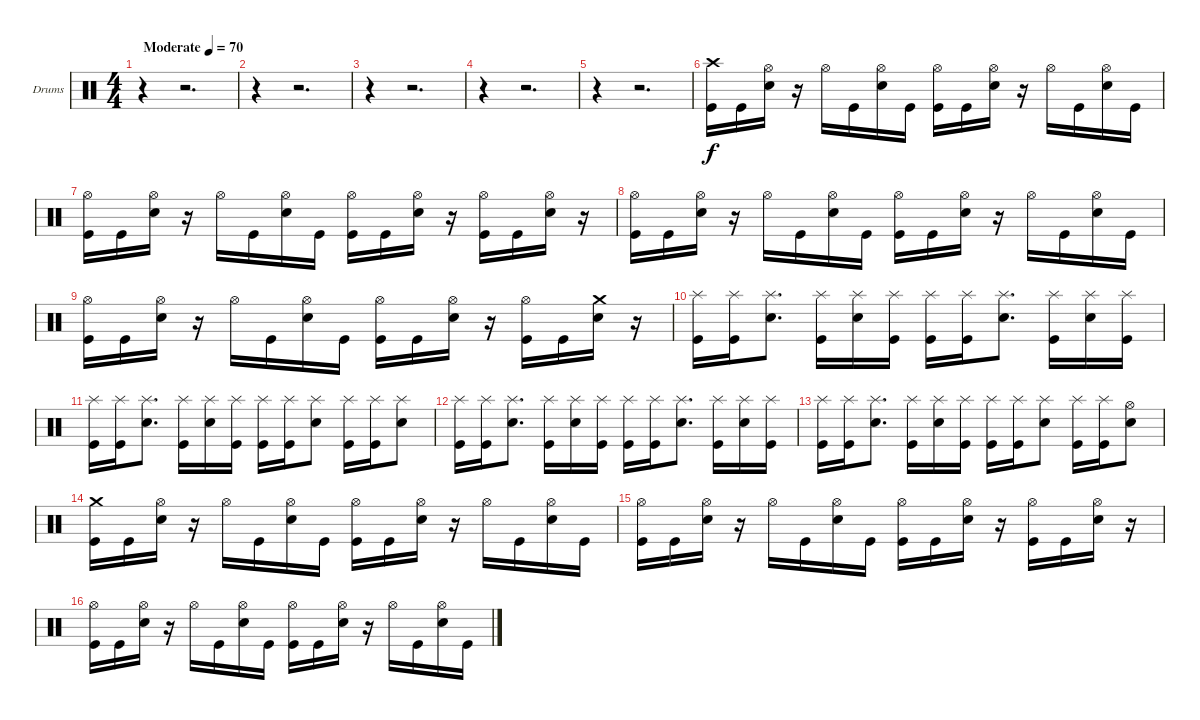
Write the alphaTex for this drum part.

\bracketExtendMode groupsimilarinstruments
\firstSystemTrackNameOrientation horizontal
\otherSystemsTrackNameOrientation horizontal
\track ("Drumkit" "Drums") {instrument percussion}
\staff {score}
\articulation defaults
\ts (4 4)
\beaming (8 2 2 2 2)
\tempo (70 "Moderate")
\clef neutral
\ks c
r.4{dy f} r.2{d} |
r.4 r.2{d} |
r.4 r.2{d} |
r.4 r.2{d} |
r.4 r.2{d} |
("Crash high (hit)" "Kick (hit)").16 "Kick (hit)".16 ("Hi-Hat (open)" "Snare (hit) 2").16 r.16 "Hi-Hat (open)".16 "Kick (hit)".16 ("Hi-Hat (open)" "Snare (hit) 2").16 "Kick (hit)".16 ("Hi-Hat (open)" "Kick (hit)").16 "Kick (hit)".16 ("Hi-Hat (open)" "Snare (hit) 2").16 r.16 "Hi-Hat (open)".16 "Kick (hit)".16 ("Hi-Hat (open)" "Snare (hit) 2").16 "Kick (hit)".16 |
("Hi-Hat (open)" "Kick (hit)").16 "Kick (hit)".16 ("Hi-Hat (open)" "Snare (hit) 2").16 r.16 "Hi-Hat (open)".16 "Kick (hit)".16 ("Hi-Hat (open)" "Snare (hit) 2").16 "Kick (hit)".16 ("Hi-Hat (open)" "Kick (hit)").16 "Kick (hit)".16 ("Hi-Hat (open)" "Snare (hit) 2").16 r.16 ("Hi-Hat (open)" "Kick (hit)").16 "Kick (hit)".16 ("Hi-Hat (open)" "Snare (hit) 2").16 r.16 |
("Hi-Hat (open)" "Kick (hit)").16 "Kick (hit)".16 ("Hi-Hat (open)" "Snare (hit) 2").16 r.16 "Hi-Hat (open)".16 "Kick (hit)".16 ("Hi-Hat (open)" "Snare (hit) 2").16 "Kick (hit)".16 ("Hi-Hat (open)" "Kick (hit)").16 "Kick (hit)".16 ("Hi-Hat (open)" "Snare (hit) 2").16 r.16 "Hi-Hat (open)".16 "Kick (hit)".16 ("Hi-Hat (open)" "Snare (hit) 2").16 "Kick (hit)".16 |
("Hi-Hat (open)" "Kick (hit)").16 "Kick (hit)".16 ("Hi-Hat (open)" "Snare (hit) 2").16 r.16 "Hi-Hat (open)".16 "Kick (hit)".16 ("Hi-Hat (open)" "Snare (hit) 2").16 "Kick (hit)".16 ("Hi-Hat (open)" "Kick (hit)").16 "Kick (hit)".16 ("Hi-Hat (open)" "Snare (hit) 2").16 r.16 ("Hi-Hat (open)" "Kick (hit)").16 "Kick (hit)".16 ("Crash medium (hit)" "Snare (hit) 2").16 r.16 |
("Splash (hit)" "Kick (hit)").16 ("Splash (hit)" "Kick (hit)").16 ("Splash (hit)" "Snare (hit) 2").8{d} ("Splash (hit)" "Kick (hit)").16 ("Splash (hit)" "Snare (hit) 2").16 ("Splash (hit)" "Kick (hit)").16 ("Splash (hit)" "Kick (hit)").16 ("Splash (hit)" "Kick (hit)").16 ("Splash (hit)" "Snare (hit) 2").8{d} ("Splash (hit)" "Kick (hit)").16 ("Splash (hit)" "Snare (hit) 2").16 ("Splash (hit)" "Kick (hit)").16 |
("Splash (hit)" "Kick (hit)").16 ("Splash (hit)" "Kick (hit)").16 ("Splash (hit)" "Snare (hit) 2").8{d} ("Splash (hit)" "Kick (hit)").16 ("Splash (hit)" "Snare (hit) 2").16 ("Splash (hit)" "Kick (hit)").16 ("Splash (hit)" "Kick (hit)").16 ("Splash (hit)" "Kick (hit)").16 ("Splash (hit)" "Snare (hit) 2").8 ("Splash (hit)" "Kick (hit)").16 ("Splash (hit)" "Kick (hit)").16 ("Splash (hit)" "Snare (hit) 2").8 |
("Splash (hit)" "Kick (hit)").16 ("Splash (hit)" "Kick (hit)").16 ("Splash (hit)" "Snare (hit) 2").8{d} ("Splash (hit)" "Kick (hit)").16 ("Splash (hit)" "Snare (hit) 2").16 ("Splash (hit)" "Kick (hit)").16 ("Splash (hit)" "Kick (hit)").16 ("Splash (hit)" "Kick (hit)").16 ("Splash (hit)" "Snare (hit) 2").8{d} ("Splash (hit)" "Kick (hit)").16 ("Splash (hit)" "Snare (hit) 2").16 ("Splash (hit)" "Kick (hit)").16 |
("Splash (hit)" "Kick (hit)").16 ("Splash (hit)" "Kick (hit)").16 ("Splash (hit)" "Snare (hit) 2").8{d} ("Splash (hit)" "Kick (hit)").16 ("Splash (hit)" "Snare (hit) 2").16 ("Splash (hit)" "Kick (hit)").16 ("Splash (hit)" "Kick (hit)").16 ("Splash (hit)" "Kick (hit)").16 ("Splash (hit)" "Snare (hit) 2").8 ("Splash (hit)" "Kick (hit)").16 ("Splash (hit)" "Kick (hit)").16 ("Hi-Hat (open)" "Snare (hit) 2").8 |
("Crash medium (hit)" "Kick (hit)").16 "Kick (hit)".16 ("Hi-Hat (open)" "Snare (hit) 2").16 r.16 "Hi-Hat (open)".16 "Kick (hit)".16 ("Hi-Hat (open)" "Snare (hit) 2").16 "Kick (hit)".16 ("Hi-Hat (open)" "Kick (hit)").16 "Kick (hit)".16 ("Hi-Hat (open)" "Snare (hit) 2").16 r.16 "Hi-Hat (open)".16 "Kick (hit)".16 ("Hi-Hat (open)" "Snare (hit) 2").16 "Kick (hit)".16 |
("Hi-Hat (open)" "Kick (hit)").16 "Kick (hit)".16 ("Hi-Hat (open)" "Snare (hit) 2").16 r.16 "Hi-Hat (open)".16 "Kick (hit)".16 ("Hi-Hat (open)" "Snare (hit) 2").16 "Kick (hit)".16 ("Hi-Hat (open)" "Kick (hit)").16 "Kick (hit)".16 ("Hi-Hat (open)" "Snare (hit) 2").16 r.16 ("Hi-Hat (open)" "Kick (hit)").16 "Kick (hit)".16 ("Hi-Hat (open)" "Snare (hit) 2").16 r.16 |
("Hi-Hat (open)" "Kick (hit)").16 "Kick (hit)".16 ("Hi-Hat (open)" "Snare (hit) 2").16 r.16 "Hi-Hat (open)".16 "Kick (hit)".16 ("Hi-Hat (open)" "Snare (hit) 2").16 "Kick (hit)".16 ("Hi-Hat (open)" "Kick (hit)").16 "Kick (hit)".16 ("Hi-Hat (open)" "Snare (hit) 2").16 r.16 "Hi-Hat (open)".16 "Kick (hit)".16 ("Hi-Hat (open)" "Snare (hit) 2").16 "Kick (hit)".16
